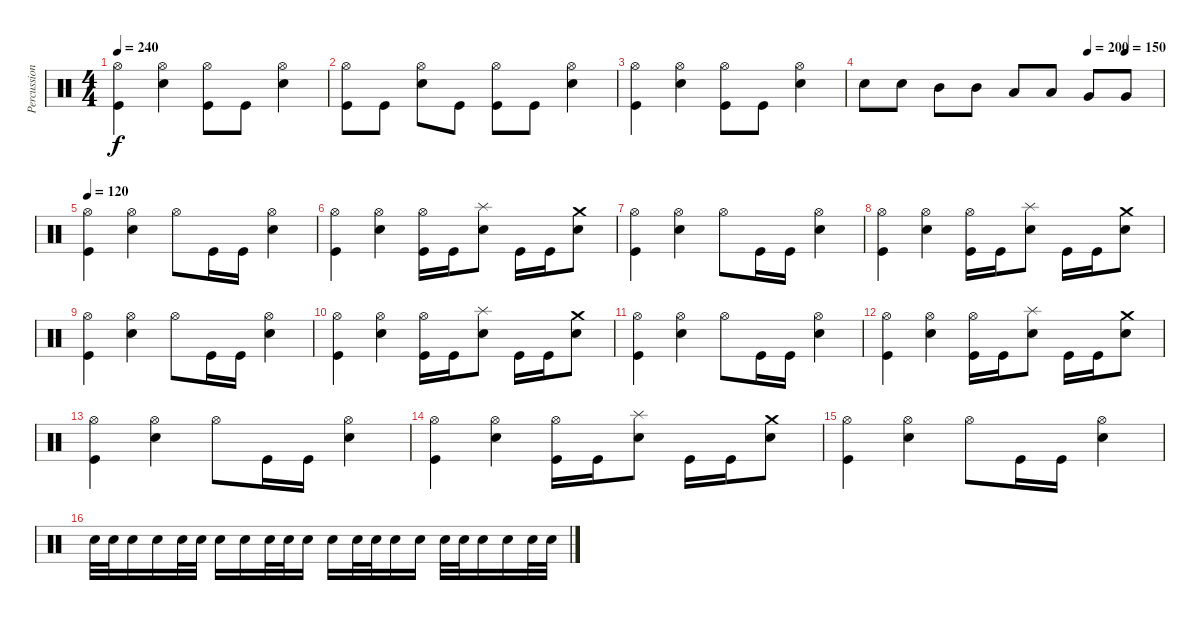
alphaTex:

\track ("Percussions" "Percussion") {instrument percussion}
\staff {score}
\articulation defaults
\ts (4 4)
\tempo 240
\clef neutral
\ks c
("Kick (hit)" "Hi-Hat (open)").4{dy f} ("Electric Snare (hit)" "Hi-Hat (open)").4 ("Kick (hit)" "Hi-Hat (open)").8 "Kick (hit)".8 ("Electric Snare (hit)" "Hi-Hat (open)").4 |
("Kick (hit)" "Hi-Hat (open)").8 "Kick (hit)".8 ("Electric Snare (hit)" "Hi-Hat (open)").8 "Kick (hit)".8 ("Kick (hit)" "Hi-Hat (open)").8 "Kick (hit)".8 ("Electric Snare (hit)" "Hi-Hat (open)").4 |
("Kick (hit)" "Hi-Hat (open)").4 ("Electric Snare (hit)" "Hi-Hat (open)").4 ("Kick (hit)" "Hi-Hat (open)").8 "Kick (hit)".8 ("Electric Snare (hit)" "Hi-Hat (open)").4 |
\tempo (200 0.75)
\tempo (150 0.875)
"Electric Snare (hit)".8 "Electric Snare (hit)".8 "Mid Tom (hit)".8 "Mid Tom (hit)".8 "Low Tom (hit)".8 "Low Tom (hit)".8 "Very Low Tom (hit)".8 "Very Low Tom (hit)".8 |
\tempo 120
("Kick (hit)" "Hi-Hat (open)").4 ("Electric Snare (hit)" "Hi-Hat (open)").4 "Hi-Hat (open)".8 "Kick (hit)".16 "Kick (hit)".16 ("Electric Snare (hit)" "Hi-Hat (open)").4 |
("Kick (hit)" "Hi-Hat (open)").4 ("Electric Snare (hit)" "Hi-Hat (open)").4 ("Kick (hit)" "Hi-Hat (open)").16 "Kick (hit)".16 ("Electric Snare (hit)" "Splash (hit)").8 "Kick (hit)".16 "Kick (hit)".16 ("Electric Snare (hit)" "Crash medium (hit)").8 |
("Kick (hit)" "Hi-Hat (open)").4 ("Electric Snare (hit)" "Hi-Hat (open)").4 "Hi-Hat (open)".8 "Kick (hit)".16 "Kick (hit)".16 ("Electric Snare (hit)" "Hi-Hat (open)").4 |
("Kick (hit)" "Hi-Hat (open)").4 ("Electric Snare (hit)" "Hi-Hat (open)").4 ("Kick (hit)" "Hi-Hat (open)").16 "Kick (hit)".16 ("Electric Snare (hit)" "Splash (hit)").8 "Kick (hit)".16 "Kick (hit)".16 ("Electric Snare (hit)" "Crash medium (hit)").8 |
("Kick (hit)" "Hi-Hat (open)").4 ("Electric Snare (hit)" "Hi-Hat (open)").4 "Hi-Hat (open)".8 "Kick (hit)".16 "Kick (hit)".16 ("Electric Snare (hit)" "Hi-Hat (open)").4 |
("Kick (hit)" "Hi-Hat (open)").4 ("Electric Snare (hit)" "Hi-Hat (open)").4 ("Kick (hit)" "Hi-Hat (open)").16 "Kick (hit)".16 ("Electric Snare (hit)" "Splash (hit)").8 "Kick (hit)".16 "Kick (hit)".16 ("Electric Snare (hit)" "Crash medium (hit)").8 |
("Kick (hit)" "Hi-Hat (open)").4 ("Electric Snare (hit)" "Hi-Hat (open)").4 "Hi-Hat (open)".8 "Kick (hit)".16 "Kick (hit)".16 ("Electric Snare (hit)" "Hi-Hat (open)").4 |
("Kick (hit)" "Hi-Hat (open)").4 ("Electric Snare (hit)" "Hi-Hat (open)").4 ("Kick (hit)" "Hi-Hat (open)").16 "Kick (hit)".16 ("Electric Snare (hit)" "Splash (hit)").8 "Kick (hit)".16 "Kick (hit)".16 ("Electric Snare (hit)" "Crash medium (hit)").8 |
("Kick (hit)" "Hi-Hat (open)").4 ("Electric Snare (hit)" "Hi-Hat (open)").4 "Hi-Hat (open)".8 "Kick (hit)".16 "Kick (hit)".16 ("Electric Snare (hit)" "Hi-Hat (open)").4 |
("Kick (hit)" "Hi-Hat (open)").4 ("Electric Snare (hit)" "Hi-Hat (open)").4 ("Kick (hit)" "Hi-Hat (open)").16 "Kick (hit)".16 ("Electric Snare (hit)" "Splash (hit)").8 "Kick (hit)".16 "Kick (hit)".16 ("Electric Snare (hit)" "Crash medium (hit)").8 |
("Kick (hit)" "Hi-Hat (open)").4 ("Electric Snare (hit)" "Hi-Hat (open)").4 "Hi-Hat (open)".8 "Kick (hit)".16 "Kick (hit)".16 ("Electric Snare (hit)" "Hi-Hat (open)").4 |
"Electric Snare (hit)".32 "Electric Snare (hit)".32 "Electric Snare (hit)".16 "Electric Snare (hit)".16 "Electric Snare (hit)".32 "Electric Snare (hit)".32 "Electric Snare (hit)".16 "Electric Snare (hit)".16 "Electric Snare (hit)".32 "Electric Snare (hit)".32 "Electric Snare (hit)".16 "Electric Snare (hit)".16 "Electric Snare (hit)".32 "Electric Snare (hit)".32 "Electric Snare (hit)".16 "Electric Snare (hit)".16 "Electric Snare (hit)".32 "Electric Snare (hit)".32 "Electric Snare (hit)".16 "Electric Snare (hit)".16 "Electric Snare (hit)".32 "Electric Snare (hit)".32
